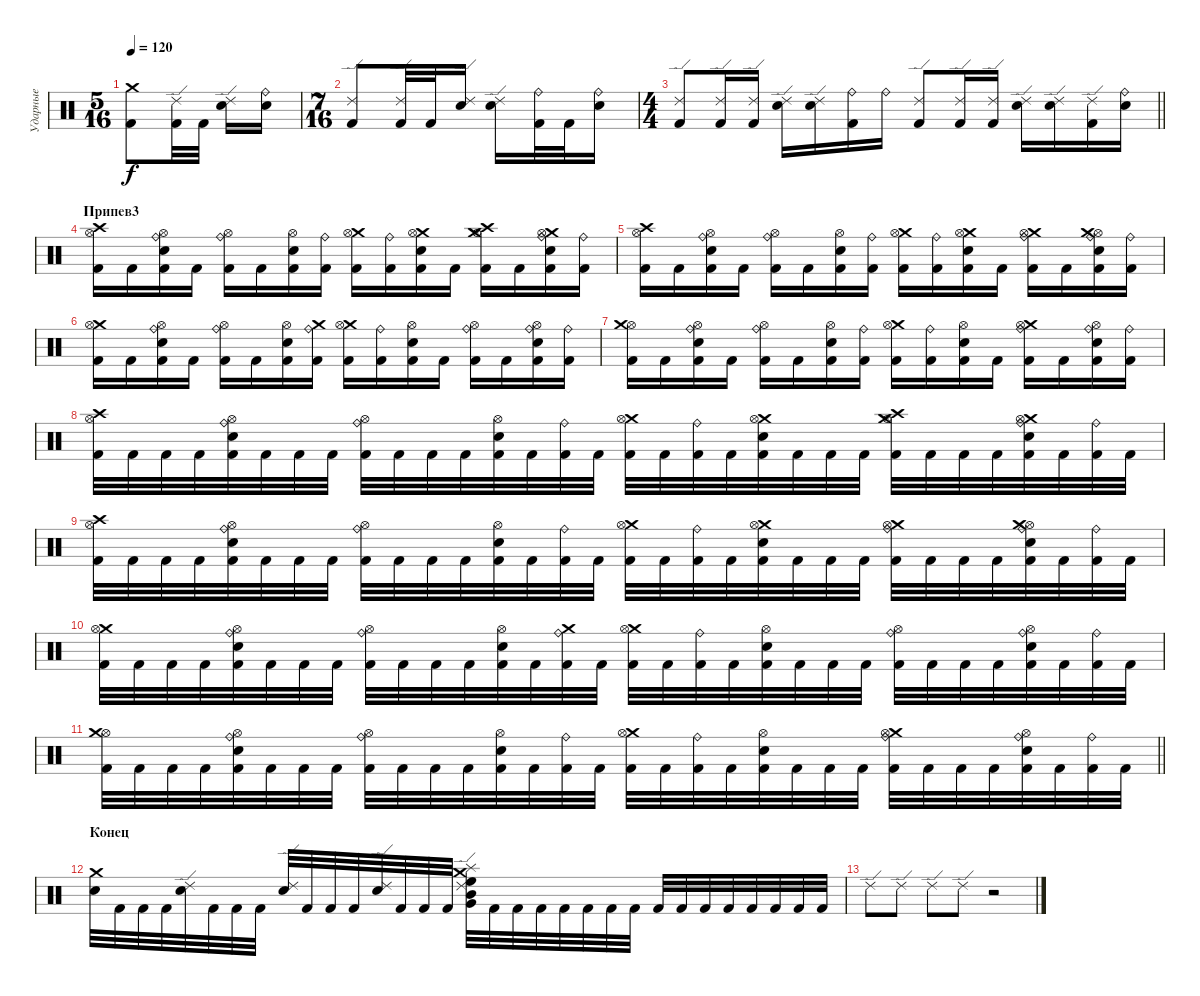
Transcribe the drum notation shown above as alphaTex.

\track ("Ударные" "Ударные") {instrument percussion}
\staff {score}
\articulation defaults
\ts (5 16)
\tempo 120
\clef neutral
\ks c
("Crash medium (hit)" "Kick (hit) 2").8{dy f} ("Ride (edge) 2" "Kick (hit) 2").32 "Kick (hit) 2".32 ("Ride (edge) 2" "Electric Snare (hit)").16 ("Ride (bell)" "Electric Snare (hit)").16 |
\ts (7 16)
("Ride (edge) 2" "Kick (hit) 2").8 ("Ride (edge) 2" "Kick (hit) 2").32 "Kick (hit) 2".32 ("Ride (edge) 2" "Electric Snare (hit)").16 ("Ride (edge) 2" "Electric Snare (hit)").16 ("Ride (bell)" "Kick (hit) 2").32 "Kick (hit) 2".32 ("Ride (bell)" "Electric Snare (hit)").16 |
\ts (4 4)
\barLineRight lightlight
("Ride (edge) 2" "Kick (hit) 2").8 ("Ride (edge) 2" "Kick (hit) 2").16 ("Ride (edge) 2" "Kick (hit) 2").16 ("Ride (edge) 2" "Electric Snare (hit)").16 ("Ride (edge) 2" "Electric Snare (hit)").16 ("Kick (hit) 2" "Ride (bell)").16 "Ride (bell)".16 ("Ride (edge) 2" "Kick (hit) 2").8 ("Ride (edge) 2" "Kick (hit) 2").16 ("Ride (edge) 2" "Kick (hit) 2").16 ("Ride (edge) 2" "Electric Snare (hit)").16 ("Ride (edge) 2" "Electric Snare (hit)").16 ("Ride (edge) 2" "Kick (hit) 2").16 ("Ride (bell)" "Electric Snare (hit)").16 |
\section ("" "Припев3")
("Crash high (hit)" "Hi-Hat (open)" "Kick (hit) 2").16 "Kick (hit) 2".16 ("Kick (hit) 2" "Ride (bell)" "Hi-Hat (open)" "Electric Snare (hit)").16 "Kick (hit) 2".16 ("Ride (bell)" "Hi-Hat (open)" "Kick (hit) 2").16 "Kick (hit) 2".16 ("Kick (hit) 2" "Hi-Hat (open)" "Electric Snare (hit)").16 ("Kick (hit) 2" "Ride (bell)").16 ("Kick (hit) 2" "Crash medium (hit)" "Hi-Hat (open)").16 ("Kick (hit) 2" "Ride (bell)").16 ("Electric Snare (hit)" "Kick (hit) 2" "Crash medium (hit)" "Hi-Hat (open)").16 "Kick (hit) 2".16 ("Kick (hit) 2" "Crash medium (hit)" "Crash high (hit)" "Hi-Hat (open)").16 "Kick (hit) 2".16 ("Electric Snare (hit)" "Kick (hit) 2" "Crash medium (hit)" "Ride (bell)" "Hi-Hat (open)").16 ("Kick (hit) 2" "Ride (bell)").16 |
("Hi-Hat (open)" "Crash high (hit)" "Kick (hit) 2").16 "Kick (hit) 2".16 ("Hi-Hat (open)" "Kick (hit) 2" "Ride (bell)" "Electric Snare (hit)").16 "Kick (hit) 2".16 ("Hi-Hat (open)" "Ride (bell)" "Kick (hit) 2").16 "Kick (hit) 2".16 ("Hi-Hat (open)" "Kick (hit) 2" "Electric Snare (hit)").16 ("Kick (hit) 2" "Ride (bell)").16 ("Kick (hit) 2" "Crash medium (hit)" "Hi-Hat (open)").16 ("Kick (hit) 2" "Ride (bell)").16 ("Electric Snare (hit)" "Kick (hit) 2" "Crash medium (hit)" "Hi-Hat (open)").16 "Kick (hit) 2".16 ("Kick (hit) 2" "Crash medium (hit)" "Ride (bell)" "Hi-Hat (open)").16 "Kick (hit) 2".16 ("Electric Snare (hit)" "Hi-Hat (open)" "Kick (hit) 2" "Crash medium (hit)" "Ride (bell)").16 ("Kick (hit) 2" "Ride (bell)").16 |
("Crash medium (hit)" "Kick (hit) 2" "Hi-Hat (open)").16 "Kick (hit) 2".16 ("Electric Snare (hit)" "Hi-Hat (open)" "Kick (hit) 2" "Ride (bell)").16 "Kick (hit) 2".16 ("Kick (hit) 2" "Hi-Hat (open)" "Ride (bell)").16 "Kick (hit) 2".16 ("Electric Snare (hit)" "Hi-Hat (open)" "Kick (hit) 2").16 ("Kick (hit) 2" "Crash medium (hit)" "Ride (bell)").16 ("Kick (hit) 2" "Crash medium (hit)" "Hi-Hat (open)").16 ("Kick (hit) 2" "Ride (bell)").16 ("Electric Snare (hit)" "Hi-Hat (open)" "Kick (hit) 2").16 "Kick (hit) 2".16 ("Kick (hit) 2" "Hi-Hat (open)" "Ride (bell)").16 "Kick (hit) 2".16 ("Electric Snare (hit)" "Hi-Hat (open)" "Kick (hit) 2" "Ride (bell)").16 ("Kick (hit) 2" "Ride (bell)").16 |
("Hi-Hat (open)" "Crash medium (hit)" "Kick (hit) 2").16 "Kick (hit) 2".16 ("Hi-Hat (open)" "Electric Snare (hit)" "Kick (hit) 2" "Ride (bell)").16 "Kick (hit) 2".16 ("Hi-Hat (open)" "Kick (hit) 2" "Ride (bell)").16 "Kick (hit) 2".16 ("Hi-Hat (open)" "Electric Snare (hit)" "Kick (hit) 2").16 ("Kick (hit) 2" "Ride (bell)").16 ("Kick (hit) 2" "Crash medium (hit)" "Hi-Hat (open)").16 ("Kick (hit) 2" "Ride (bell)").16 ("Electric Snare (hit)" "Hi-Hat (open)" "Kick (hit) 2").16 "Kick (hit) 2".16 ("Kick (hit) 2" "Crash medium (hit)" "Hi-Hat (open)" "Ride (bell)").16 "Kick (hit) 2".16 ("Electric Snare (hit)" "Hi-Hat (open)" "Kick (hit) 2" "Ride (bell)").16 ("Kick (hit) 2" "Ride (bell)").16 |
("Crash high (hit)" "Hi-Hat (open)" "Kick (hit) 2").32 "Kick (hit) 2".32 "Kick (hit) 2".32 "Kick (hit) 2".32 ("Kick (hit) 2" "Ride (bell)" "Hi-Hat (open)" "Electric Snare (hit)").32 "Kick (hit) 2".32 "Kick (hit) 2".32 "Kick (hit) 2".32 ("Ride (bell)" "Hi-Hat (open)" "Kick (hit) 2").32 "Kick (hit) 2".32 "Kick (hit) 2".32 "Kick (hit) 2".32 ("Kick (hit) 2" "Hi-Hat (open)" "Electric Snare (hit)").32 "Kick (hit) 2".32 ("Kick (hit) 2" "Ride (bell)").32 "Kick (hit) 2".32 ("Kick (hit) 2" "Crash medium (hit)" "Hi-Hat (open)").32 "Kick (hit) 2".32 ("Kick (hit) 2" "Ride (bell)").32 "Kick (hit) 2".32 ("Electric Snare (hit)" "Kick (hit) 2" "Crash medium (hit)" "Hi-Hat (open)").32 "Kick (hit) 2".32 "Kick (hit) 2".32 "Kick (hit) 2".32 ("Kick (hit) 2" "Crash medium (hit)" "Crash high (hit)" "Hi-Hat (open)").32 "Kick (hit) 2".32 "Kick (hit) 2".32 "Kick (hit) 2".32 ("Electric Snare (hit)" "Kick (hit) 2" "Crash medium (hit)" "Ride (bell)" "Hi-Hat (open)").32 "Kick (hit) 2".32 ("Kick (hit) 2" "Ride (bell)").32 "Kick (hit) 2".32 |
("Hi-Hat (open)" "Crash high (hit)" "Kick (hit) 2").32 "Kick (hit) 2".32 "Kick (hit) 2".32 "Kick (hit) 2".32 ("Kick (hit) 2" "Hi-Hat (open)" "Ride (bell)" "Electric Snare (hit)").32 "Kick (hit) 2".32 "Kick (hit) 2".32 "Kick (hit) 2".32 ("Hi-Hat (open)" "Ride (bell)" "Kick (hit) 2").32 "Kick (hit) 2".32 "Kick (hit) 2".32 "Kick (hit) 2".32 ("Kick (hit) 2" "Hi-Hat (open)" "Electric Snare (hit)").32 "Kick (hit) 2".32 ("Kick (hit) 2" "Ride (bell)").32 "Kick (hit) 2".32 ("Kick (hit) 2" "Crash medium (hit)" "Hi-Hat (open)").32 "Kick (hit) 2".32 ("Kick (hit) 2" "Ride (bell)").32 "Kick (hit) 2".32 ("Electric Snare (hit)" "Kick (hit) 2" "Crash medium (hit)" "Hi-Hat (open)").32 "Kick (hit) 2".32 "Kick (hit) 2".32 "Kick (hit) 2".32 ("Kick (hit) 2" "Crash medium (hit)" "Ride (bell)" "Hi-Hat (open)").32 "Kick (hit) 2".32 "Kick (hit) 2".32 "Kick (hit) 2".32 ("Electric Snare (hit)" "Hi-Hat (open)" "Kick (hit) 2" "Crash medium (hit)" "Ride (bell)").32 "Kick (hit) 2".32 ("Kick (hit) 2" "Ride (bell)").32 "Kick (hit) 2".32 |
("Crash medium (hit)" "Kick (hit) 2" "Hi-Hat (open)").32 "Kick (hit) 2".32 "Kick (hit) 2".32 "Kick (hit) 2".32 ("Electric Snare (hit)" "Hi-Hat (open)" "Kick (hit) 2" "Ride (bell)").32 "Kick (hit) 2".32 "Kick (hit) 2".32 "Kick (hit) 2".32 ("Kick (hit) 2" "Hi-Hat (open)" "Ride (bell)").32 "Kick (hit) 2".32 "Kick (hit) 2".32 "Kick (hit) 2".32 ("Electric Snare (hit)" "Hi-Hat (open)" "Kick (hit) 2").32 "Kick (hit) 2".32 ("Kick (hit) 2" "Crash medium (hit)" "Ride (bell)").32 "Kick (hit) 2".32 ("Kick (hit) 2" "Crash medium (hit)" "Hi-Hat (open)").32 "Kick (hit) 2".32 ("Kick (hit) 2" "Ride (bell)").32 "Kick (hit) 2".32 ("Electric Snare (hit)" "Hi-Hat (open)" "Kick (hit) 2").32 "Kick (hit) 2".32 "Kick (hit) 2".32 "Kick (hit) 2".32 ("Kick (hit) 2" "Hi-Hat (open)" "Ride (bell)").32 "Kick (hit) 2".32 "Kick (hit) 2".32 "Kick (hit) 2".32 ("Electric Snare (hit)" "Hi-Hat (open)" "Kick (hit) 2" "Ride (bell)").32 "Kick (hit) 2".32 ("Kick (hit) 2" "Ride (bell)").32 "Kick (hit) 2".32 |
\barLineRight lightlight
("Hi-Hat (open)" "Crash medium (hit)" "Kick (hit) 2").32 "Kick (hit) 2".32 "Kick (hit) 2".32 "Kick (hit) 2".32 ("Hi-Hat (open)" "Electric Snare (hit)" "Kick (hit) 2" "Ride (bell)").32 "Kick (hit) 2".32 "Kick (hit) 2".32 "Kick (hit) 2".32 ("Hi-Hat (open)" "Kick (hit) 2" "Ride (bell)").32 "Kick (hit) 2".32 "Kick (hit) 2".32 "Kick (hit) 2".32 ("Hi-Hat (open)" "Electric Snare (hit)" "Kick (hit) 2").32 "Kick (hit) 2".32 ("Kick (hit) 2" "Ride (bell)").32 "Kick (hit) 2".32 ("Kick (hit) 2" "Crash medium (hit)" "Hi-Hat (open)").32 "Kick (hit) 2".32 ("Kick (hit) 2" "Ride (bell)").32 "Kick (hit) 2".32 ("Electric Snare (hit)" "Hi-Hat (open)" "Kick (hit) 2").32 "Kick (hit) 2".32 "Kick (hit) 2".32 "Kick (hit) 2".32 ("Kick (hit) 2" "Crash medium (hit)" "Hi-Hat (open)" "Ride (bell)").32 "Kick (hit) 2".32 "Kick (hit) 2".32 "Kick (hit) 2".32 ("Electric Snare (hit)" "Hi-Hat (open)" "Kick (hit) 2" "Ride (bell)").32 "Kick (hit) 2".32 ("Kick (hit) 2" "Ride (bell)").32 "Kick (hit) 2".32 |
\section ("" "Конец")
("Crash medium (hit)" "Electric Snare (hit)").32 "Kick (hit) 2".32 "Kick (hit) 2".32 "Kick (hit) 2".32 ("Ride (edge) 2" "Electric Snare (hit)").32 "Kick (hit) 2".32 "Kick (hit) 2".32 "Kick (hit) 2".32 ("Ride (edge) 2" "Electric Snare (hit)").32 "Kick (hit) 2".32 "Kick (hit) 2".32 "Kick (hit) 2".32 ("Ride (edge) 2" "Electric Snare (hit)").32 "Kick (hit) 2".32 "Kick (hit) 2".32 "Kick (hit) 2".32 ("High Floor Tom (hit)" "Mid Tom (hit)" "Very Low Tom (hit)" "Splash (hit)" "Crash medium (hit)" "Ride (edge) 2").32 "Kick (hit) 2".32 "Kick (hit) 2".32 "Kick (hit) 2".32 "Kick (hit) 2".32 "Kick (hit) 2".32 "Kick (hit) 2".32 "Kick (hit) 2".32 "Kick (hit) 2".32 "Kick (hit) 2".32 "Kick (hit) 2".32 "Kick (hit) 2".32 "Kick (hit) 2".32 "Kick (hit) 2".32 "Kick (hit) 2".32 "Kick (hit) 2".32 |
"Ride (edge) 2".8 "Ride (edge) 2".8 "Ride (edge) 2".8 "Ride (edge) 2".8 r.2
